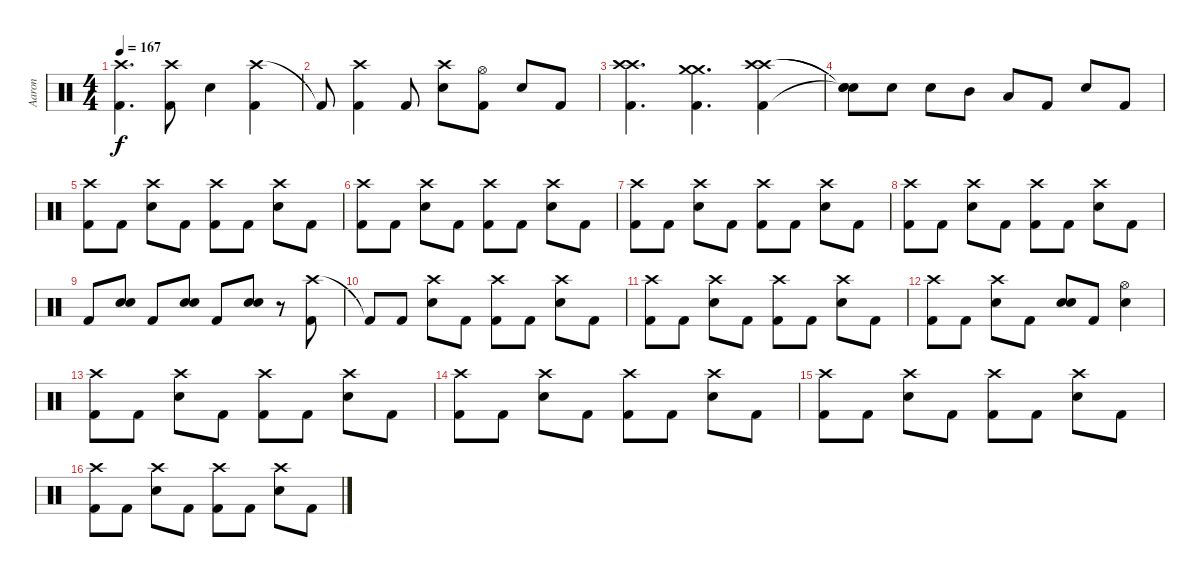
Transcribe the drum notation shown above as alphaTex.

\track ("Aaron" "Aaron") {instrument percussion}
\staff {score}
\articulation defaults
\ts (4 4)
\tempo 167
\clef neutral
\ks c
("Crash high (hit)" "Kick (hit) 2").4{d dy f} ("Crash high (hit)" "Kick (hit) 2").8 "Electric Snare (hit)".4 ("Crash high (hit)" "Kick (hit) 2").4 |
"Kick (hit) 2"{t}.8 ("Crash high (hit)" "Kick (hit) 2").4 "Kick (hit) 2".8 ("Crash high (hit)" "Electric Snare (hit)").8 ("Hi-Hat (open)" "Kick (hit) 2").8 "Electric Snare (hit)".8 "Kick (hit) 2".8 |
("Crash high (hit)" "Crash high (hit)" "Kick (hit) 2").4{d} ("Crash medium (hit)" "Crash medium (hit)" "Kick (hit) 2").4{d} ("Crash high (hit)" "Crash high (hit)" "Kick (hit) 2").4 |
("Snare (hit)"{t} "Snare (hit)"{t} "Snare (hit)"{t}).8 "Electric Snare (hit)".8 "Electric Snare (hit)".8 "Mid Tom (hit)".8 "Low Tom (hit)".8 "Kick (hit) 2".8 "Electric Snare (hit)".8 "Kick (hit) 2".8 |
("Crash high (hit)" "Kick (hit) 2").8 "Kick (hit) 2".8 ("Crash high (hit)" "Electric Snare (hit)").8 "Kick (hit) 2".8 ("Crash high (hit)" "Kick (hit) 2").8 "Kick (hit) 2".8 ("Crash high (hit)" "Electric Snare (hit)").8 "Kick (hit) 2".8 |
("Crash high (hit)" "Kick (hit) 2").8 "Kick (hit) 2".8 ("Crash high (hit)" "Electric Snare (hit)").8 "Kick (hit) 2".8 ("Crash high (hit)" "Kick (hit) 2").8 "Kick (hit) 2".8 ("Crash high (hit)" "Electric Snare (hit)").8 "Kick (hit) 2".8 |
("Crash high (hit)" "Kick (hit) 2").8 "Kick (hit) 2".8 ("Crash high (hit)" "Electric Snare (hit)").8 "Kick (hit) 2".8 ("Crash high (hit)" "Kick (hit) 2").8 "Kick (hit) 2".8 ("Crash high (hit)" "Electric Snare (hit)").8 "Kick (hit) 2".8 |
("Crash high (hit)" "Kick (hit) 2").8 "Kick (hit) 2".8 ("Crash high (hit)" "Electric Snare (hit)").8 "Kick (hit) 2".8 ("Crash high (hit)" "Kick (hit) 2").8 "Kick (hit) 2".8 ("Crash high (hit)" "Electric Snare (hit)").8 "Kick (hit) 2".8 |
"Kick (hit) 2".8 ("Electric Snare (hit)" "Electric Snare (hit)").8 "Kick (hit) 2".8 ("Electric Snare (hit)" "Electric Snare (hit)").8 "Kick (hit) 2".8 ("Electric Snare (hit)" "Electric Snare (hit)").8 r.8 ("Crash high (hit)" "Kick (hit) 2").8 |
"Kick (hit) 2"{t}.8 "Kick (hit) 2".8 ("Crash high (hit)" "Electric Snare (hit)").8 "Kick (hit) 2".8 ("Crash high (hit)" "Kick (hit) 2").8 "Kick (hit) 2".8 ("Crash high (hit)" "Electric Snare (hit)").8 "Kick (hit) 2".8 |
("Crash high (hit)" "Kick (hit) 2").8 "Kick (hit) 2".8 ("Crash high (hit)" "Electric Snare (hit)").8 "Kick (hit) 2".8 ("Crash high (hit)" "Kick (hit) 2").8 "Kick (hit) 2".8 ("Crash high (hit)" "Electric Snare (hit)").8 "Kick (hit) 2".8 |
("Crash high (hit)" "Kick (hit) 2").8 "Kick (hit) 2".8 ("Crash high (hit)" "Electric Snare (hit)").8 "Kick (hit) 2".8 ("Electric Snare (hit)" "Electric Snare (hit)").8 "Kick (hit) 2".8 ("Hi-Hat (open)" "Electric Snare (hit)").4 |
("Crash high (hit)" "Kick (hit) 2").8 "Kick (hit) 2".8 ("Crash high (hit)" "Electric Snare (hit)").8 "Kick (hit) 2".8 ("Crash high (hit)" "Kick (hit) 2").8 "Kick (hit) 2".8 ("Crash high (hit)" "Electric Snare (hit)").8 "Kick (hit) 2".8 |
("Crash high (hit)" "Kick (hit) 2").8 "Kick (hit) 2".8 ("Crash high (hit)" "Electric Snare (hit)").8 "Kick (hit) 2".8 ("Crash high (hit)" "Kick (hit) 2").8 "Kick (hit) 2".8 ("Crash high (hit)" "Electric Snare (hit)").8 "Kick (hit) 2".8 |
("Crash high (hit)" "Kick (hit) 2").8 "Kick (hit) 2".8 ("Crash high (hit)" "Electric Snare (hit)").8 "Kick (hit) 2".8 ("Crash high (hit)" "Kick (hit) 2").8 "Kick (hit) 2".8 ("Crash high (hit)" "Electric Snare (hit)").8 "Kick (hit) 2".8 |
("Crash high (hit)" "Kick (hit) 2").8 "Kick (hit) 2".8 ("Crash high (hit)" "Electric Snare (hit)").8 "Kick (hit) 2".8 ("Crash high (hit)" "Kick (hit) 2").8 "Kick (hit) 2".8 ("Crash high (hit)" "Electric Snare (hit)").8 "Kick (hit) 2".8
